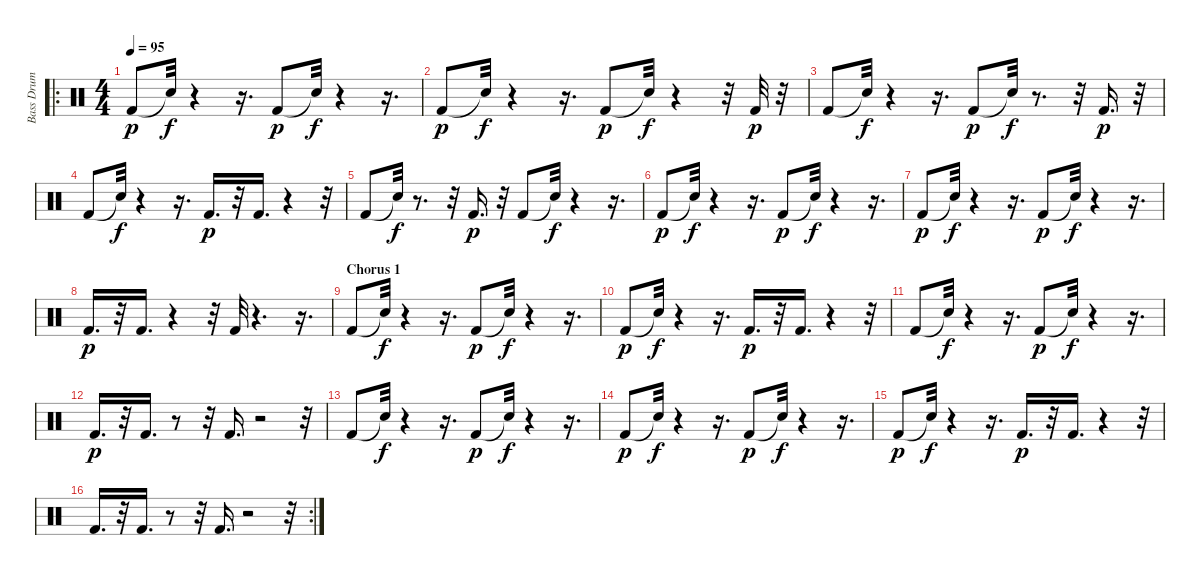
\track ("Bass Drum" "Bass Drum") {instrument percussion}
\staff {score}
\articulation defaults
\ro
\ts (4 4)
\tempo 95
\clef neutral
\ks c "Kick (hit) 2".8{dy p} "Snare (hit)"{t}.32{dy f}
r.4 r.16{d} "Kick (hit) 2".8{dy p} "Snare (hit)"{t}.32{dy f} r.4 r.16{d} |
"Kick (hit) 2".8{dy p} "Snare (hit)"{t}.32{dy f} r.4 r.16{d} "Kick (hit) 2".8{dy p} "Snare (hit)"{t}.32{dy f} r.4 r.32 "Kick (hit) 2".32{dy p} r.32 |
"Kick (hit) 2".8 "Snare (hit)"{t}.32{dy f} r.4 r.16{d} "Kick (hit) 2".8{dy p} "Snare (hit)"{t}.32{dy f} r.8{d} r.32 "Kick (hit) 2".16{d dy p} r.32 |
"Kick (hit) 2".8 "Snare (hit)"{t}.32{dy f} r.4 r.16{d} "Kick (hit) 2".16{d dy p} r.32 "Kick (hit) 2".16{d} r.4 r.32 |
"Kick (hit) 2".8 "Snare (hit)"{t}.32{dy f} r.8{d} r.32 "Kick (hit) 2".16{d dy p} r.32 "Kick (hit) 2".8 "Snare (hit)"{t}.32{dy f} r.4 r.16{d} |
"Kick (hit) 2".8{dy p} "Snare (hit)"{t}.32{dy f} r.4 r.16{d} "Kick (hit) 2".8{dy p} "Snare (hit)"{t}.32{dy f} r.4 r.16{d} |
"Kick (hit) 2".8{dy p} "Snare (hit)"{t}.32{dy f} r.4 r.16{d} "Kick (hit) 2".8{dy p} "Snare (hit)"{t}.32{dy f} r.4 r.16{d} |
"Kick (hit) 2".16{d dy p} r.32 "Kick (hit) 2".16{d} r.4 r.32 "Kick (hit) 2".32 r.4{d} r.16{d} |
\section ("" "Chorus 1")
"Kick (hit) 2".8 "Snare (hit)"{t}.32{dy f} r.4 r.16{d} "Kick (hit) 2".8{dy p} "Snare (hit)"{t}.32{dy f} r.4 r.16{d} |
"Kick (hit) 2".8{dy p} "Snare (hit)"{t}.32{dy f} r.4 r.16{d} "Kick (hit) 2".16{d dy p} r.32 "Kick (hit) 2".16{d} r.4 r.32 |
"Kick (hit) 2".8 "Snare (hit)"{t}.32{dy f} r.4 r.16{d} "Kick (hit) 2".8{dy p} "Snare (hit)"{t}.32{dy f} r.4 r.16{d} |
"Kick (hit) 2".16{d dy p} r.32 "Kick (hit) 2".16{d} r.8 r.32 "Kick (hit) 2".16{d} r.2 r.32 |
"Kick (hit) 2".8 "Snare (hit)"{t}.32{dy f} r.4 r.16{d} "Kick (hit) 2".8{dy p} "Snare (hit)"{t}.32{dy f} r.4 r.16{d} |
"Kick (hit) 2".8{dy p} "Snare (hit)"{t}.32{dy f} r.4 r.16{d} "Kick (hit) 2".8{dy p} "Snare (hit)"{t}.32{dy f} r.4 r.16{d} |
"Kick (hit) 2".8{dy p} "Snare (hit)"{t}.32{dy f} r.4 r.16{d} "Kick (hit) 2".16{d dy p} r.32 "Kick (hit) 2".16{d} r.4 r.32 |
\rc 2 "Kick (hit) 2".16{d}
r.32 "Kick (hit) 2".16{d} r.8 r.32 "Kick (hit) 2".16{d} r.2 r.32
